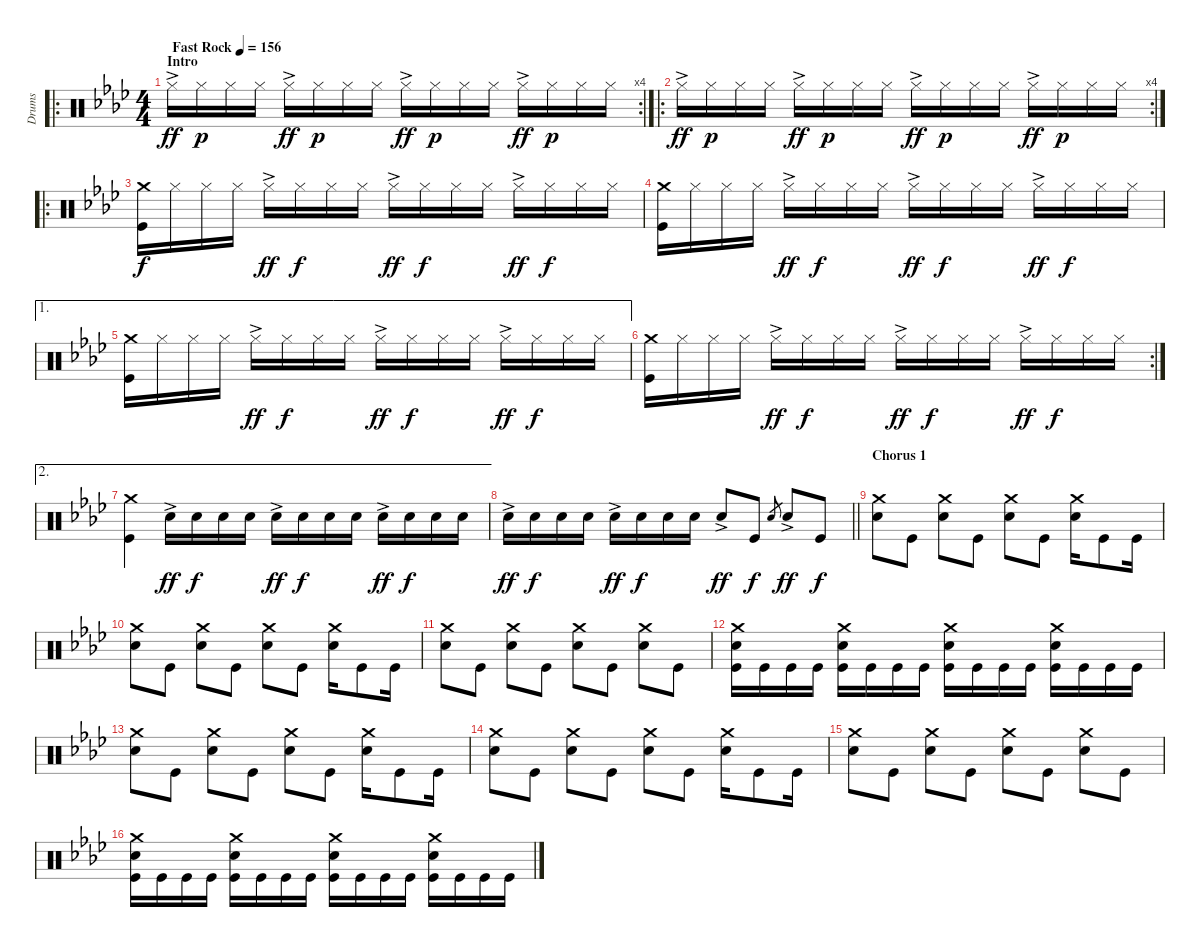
\track ("Drums" "Drums") {instrument percussion}
\staff {score}
\articulation defaults
\ro
\rc 4
\ts (4 4)
\section ("" "Intro")
\tempo (156 "Fast Rock")
\clef neutral
\ks fminor "Hi-Hat (closed)"{ac}.16{dy ff} "Hi-Hat (closed)".16{dy p} "Hi-Hat (closed)".16 "Hi-Hat (closed)".16 "Hi-Hat (closed)"{ac}.16{dy ff} "Hi-Hat (closed)".16{dy p} "Hi-Hat (closed)".16 "Hi-Hat (closed)".16 "Hi-Hat (closed)"{ac}.16{dy ff} "Hi-Hat (closed)".16{dy p} "Hi-Hat (closed)".16 "Hi-Hat (closed)".16 "Hi-Hat (closed)"{ac}.16{dy ff} "Hi-Hat (closed)".16{dy p} "Hi-Hat (closed)".16 "Hi-Hat (closed)".16
|
\ro
\rc 4 "Hi-Hat (closed)"{ac}.16{dy ff} "Hi-Hat (closed)".16{dy p} "Hi-Hat (closed)".16 "Hi-Hat (closed)".16 "Hi-Hat (closed)"{ac}.16{dy ff} "Hi-Hat (closed)".16{dy p} "Hi-Hat (closed)".16 "Hi-Hat (closed)".16 "Hi-Hat (closed)"{ac}.16{dy ff} "Hi-Hat (closed)".16{dy p} "Hi-Hat (closed)".16 "Hi-Hat (closed)".16 "Hi-Hat (closed)"{ac}.16{dy ff} "Hi-Hat (closed)".16{dy p} "Hi-Hat (closed)".16 "Hi-Hat (closed)".16
|
\ro
("Crash medium (hit)" "Kick (hit)").16{dy f} "Hi-Hat (closed)".16 "Hi-Hat (closed)".16 "Hi-Hat (closed)".16 "Hi-Hat (closed)"{ac}.16{dy ff} "Hi-Hat (closed)".16{dy f} "Hi-Hat (closed)".16 "Hi-Hat (closed)".16 "Hi-Hat (closed)"{ac}.16{dy ff} "Hi-Hat (closed)".16{dy f} "Hi-Hat (closed)".16 "Hi-Hat (closed)".16 "Hi-Hat (closed)"{ac}.16{dy ff} "Hi-Hat (closed)".16{dy f} "Hi-Hat (closed)".16 "Hi-Hat (closed)".16 |
("Crash medium (hit)" "Kick (hit)").16 "Hi-Hat (closed)".16 "Hi-Hat (closed)".16 "Hi-Hat (closed)".16 "Hi-Hat (closed)"{ac}.16{dy ff} "Hi-Hat (closed)".16{dy f} "Hi-Hat (closed)".16 "Hi-Hat (closed)".16 "Hi-Hat (closed)"{ac}.16{dy ff} "Hi-Hat (closed)".16{dy f} "Hi-Hat (closed)".16 "Hi-Hat (closed)".16 "Hi-Hat (closed)"{ac}.16{dy ff} "Hi-Hat (closed)".16{dy f} "Hi-Hat (closed)".16 "Hi-Hat (closed)".16 |
\ae 1
("Crash medium (hit)" "Kick (hit)").16 "Hi-Hat (closed)".16 "Hi-Hat (closed)".16 "Hi-Hat (closed)".16 "Hi-Hat (closed)"{ac}.16{dy ff} "Hi-Hat (closed)".16{dy f} "Hi-Hat (closed)".16 "Hi-Hat (closed)".16 "Hi-Hat (closed)"{ac}.16{dy ff} "Hi-Hat (closed)".16{dy f} "Hi-Hat (closed)".16 "Hi-Hat (closed)".16 "Hi-Hat (closed)"{ac}.16{dy ff} "Hi-Hat (closed)".16{dy f} "Hi-Hat (closed)".16 "Hi-Hat (closed)".16 |
\rc 2
("Crash medium (hit)" "Kick (hit)").16 "Hi-Hat (closed)".16 "Hi-Hat (closed)".16 "Hi-Hat (closed)".16 "Hi-Hat (closed)"{ac}.16{dy ff} "Hi-Hat (closed)".16{dy f} "Hi-Hat (closed)".16 "Hi-Hat (closed)".16 "Hi-Hat (closed)"{ac}.16{dy ff} "Hi-Hat (closed)".16{dy f} "Hi-Hat (closed)".16 "Hi-Hat (closed)".16 "Hi-Hat (closed)"{ac}.16{dy ff} "Hi-Hat (closed)".16{dy f} "Hi-Hat (closed)".16 "Hi-Hat (closed)".16 |
\ae 2
("Crash medium (hit)" "Kick (hit)").4 "Electric Snare (hit)"{ac}.16{dy ff} "Electric Snare (hit)".16{dy f} "Electric Snare (hit)".16 "Electric Snare (hit)".16 "Electric Snare (hit)"{ac}.16{dy ff} "Electric Snare (hit)".16{dy f} "Electric Snare (hit)".16 "Electric Snare (hit)".16 "Electric Snare (hit)"{ac}.16{dy ff} "Electric Snare (hit)".16{dy f} "Electric Snare (hit)".16 "Electric Snare (hit)".16 |
\barLineRight lightlight "Electric Snare (hit)"{ac}.16{dy ff} "Electric Snare (hit)".16{dy f} "Electric Snare (hit)".16 "Electric Snare (hit)".16 "Electric Snare (hit)"{ac}.16{dy ff} "Electric Snare (hit)".16{dy f} "Electric Snare (hit)".16 "Electric Snare (hit)".16 "Electric Snare (hit)"{ac}.8{dy ff} "Kick (hit)".8{dy f} "Electric Snare (hit)".8{gr} "Electric Snare (hit)"{ac}.8{dy ff} "Kick (hit)".8{dy f}
|
\section ("" "Chorus 1")
("Electric Snare (hit)" "Crash medium (hit)").8 "Kick (hit)".8 ("Electric Snare (hit)" "Crash medium (hit)").8 "Kick (hit)".8 ("Electric Snare (hit)" "Crash medium (hit)").8 "Kick (hit)".8 ("Electric Snare (hit)" "Crash medium (hit)").16 "Kick (hit)".8 "Kick (hit)".16 |
("Electric Snare (hit)" "Crash medium (hit)").8 "Kick (hit)".8 ("Electric Snare (hit)" "Crash medium (hit)").8 "Kick (hit)".8 ("Electric Snare (hit)" "Crash medium (hit)").8 "Kick (hit)".8 ("Electric Snare (hit)" "Crash medium (hit)").16 "Kick (hit)".8 "Kick (hit)".16 |
("Electric Snare (hit)" "Crash medium (hit)").8 "Kick (hit)".8 ("Electric Snare (hit)" "Crash medium (hit)").8 "Kick (hit)".8 ("Electric Snare (hit)" "Crash medium (hit)").8 "Kick (hit)".8 ("Electric Snare (hit)" "Crash medium (hit)").8 "Kick (hit)".8 |
("Kick (hit)" "Electric Snare (hit)" "Crash medium (hit)").16 "Kick (hit)".16 "Kick (hit)".16 "Kick (hit)".16 ("Kick (hit)" "Electric Snare (hit)" "Crash medium (hit)").16 "Kick (hit)".16 "Kick (hit)".16 "Kick (hit)".16 ("Kick (hit)" "Electric Snare (hit)" "Crash medium (hit)").16 "Kick (hit)".16 "Kick (hit)".16 "Kick (hit)".16 ("Kick (hit)" "Electric Snare (hit)" "Crash medium (hit)").16 "Kick (hit)".16 "Kick (hit)".16 "Kick (hit)".16 |
("Electric Snare (hit)" "Crash medium (hit)").8 "Kick (hit)".8 ("Electric Snare (hit)" "Crash medium (hit)").8 "Kick (hit)".8 ("Electric Snare (hit)" "Crash medium (hit)").8 "Kick (hit)".8 ("Electric Snare (hit)" "Crash medium (hit)").16 "Kick (hit)".8 "Kick (hit)".16 |
("Electric Snare (hit)" "Crash medium (hit)").8 "Kick (hit)".8 ("Electric Snare (hit)" "Crash medium (hit)").8 "Kick (hit)".8 ("Electric Snare (hit)" "Crash medium (hit)").8 "Kick (hit)".8 ("Electric Snare (hit)" "Crash medium (hit)").16 "Kick (hit)".8 "Kick (hit)".16 |
("Electric Snare (hit)" "Crash medium (hit)").8 "Kick (hit)".8 ("Electric Snare (hit)" "Crash medium (hit)").8 "Kick (hit)".8 ("Electric Snare (hit)" "Crash medium (hit)").8 "Kick (hit)".8 ("Electric Snare (hit)" "Crash medium (hit)").8 "Kick (hit)".8 |
("Kick (hit)" "Electric Snare (hit)" "Crash medium (hit)").16 "Kick (hit)".16 "Kick (hit)".16 "Kick (hit)".16 ("Kick (hit)" "Electric Snare (hit)" "Crash medium (hit)").16 "Kick (hit)".16 "Kick (hit)".16 "Kick (hit)".16 ("Kick (hit)" "Electric Snare (hit)" "Crash medium (hit)").16 "Kick (hit)".16 "Kick (hit)".16 "Kick (hit)".16 ("Kick (hit)" "Electric Snare (hit)" "Crash medium (hit)").16 "Kick (hit)".16 "Kick (hit)".16 "Kick (hit)".16
